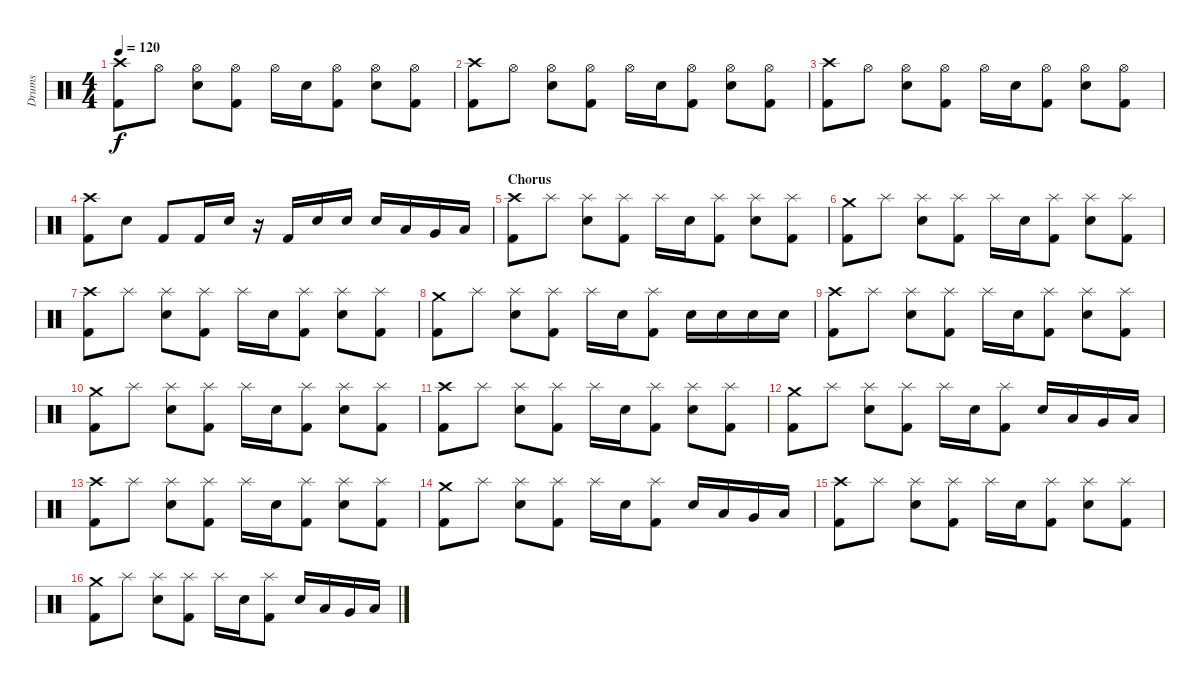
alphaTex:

\track ("Drums" "Drums") {instrument percussion}
\staff {score}
\articulation defaults
\ts (4 4)
\tempo 120
\clef neutral
\ks c
("Kick (hit) 2" "Crash high (hit)").8{dy f} "Hi-Hat (open)".8 ("Electric Snare (hit)" "Hi-Hat (open)").8 ("Kick (hit) 2" "Hi-Hat (open)").8 "Hi-Hat (open)".16 "Electric Snare (hit)".16 ("Kick (hit) 2" "Hi-Hat (open)").8 ("Electric Snare (hit)" "Hi-Hat (open)").8 ("Kick (hit) 2" "Hi-Hat (open)").8 |
("Kick (hit) 2" "Crash high (hit)").8 "Hi-Hat (open)".8 ("Electric Snare (hit)" "Hi-Hat (open)").8 ("Kick (hit) 2" "Hi-Hat (open)").8 "Hi-Hat (open)".16 "Electric Snare (hit)".16 ("Kick (hit) 2" "Hi-Hat (open)").8 ("Electric Snare (hit)" "Hi-Hat (open)").8 ("Kick (hit) 2" "Hi-Hat (open)").8 |
("Kick (hit) 2" "Crash high (hit)").8 "Hi-Hat (open)".8 ("Electric Snare (hit)" "Hi-Hat (open)").8 ("Kick (hit) 2" "Hi-Hat (open)").8 "Hi-Hat (open)".16 "Electric Snare (hit)".16 ("Kick (hit) 2" "Hi-Hat (open)").8 ("Electric Snare (hit)" "Hi-Hat (open)").8 ("Kick (hit) 2" "Hi-Hat (open)").8 |
("Kick (hit) 2" "Crash high (hit)").8 "Electric Snare (hit)".8 "Kick (hit) 2".8 "Kick (hit) 2".16 "Electric Snare (hit)".16 r.16 "Kick (hit) 2".16 "Electric Snare (hit)".16 "Electric Snare (hit)".16 "Electric Snare (hit)".16 "Low Tom (hit)".16 "Very Low Tom (hit)".16 "Low Floor Tom (hit)".16 |
\section ("" "Chorus")
("Kick (hit) 2" "Crash high (hit)").8 "Splash (hit)".8 ("Electric Snare (hit)" "Splash (hit)").8 ("Kick (hit) 2" "Splash (hit)").8 "Splash (hit)".16 "Electric Snare (hit)".16 ("Kick (hit) 2" "Splash (hit)").8 ("Electric Snare (hit)" "Splash (hit)").8 ("Kick (hit) 2" "Splash (hit)").8 |
("Kick (hit) 2" "Crash medium (hit)").8 "Splash (hit)".8 ("Electric Snare (hit)" "Splash (hit)").8 ("Kick (hit) 2" "Splash (hit)").8 "Splash (hit)".16 "Electric Snare (hit)".16 ("Kick (hit) 2" "Splash (hit)").8 ("Electric Snare (hit)" "Splash (hit)").8 ("Kick (hit) 2" "Splash (hit)").8 |
("Kick (hit) 2" "Crash high (hit)").8 "Splash (hit)".8 ("Electric Snare (hit)" "Splash (hit)").8 ("Kick (hit) 2" "Splash (hit)").8 "Splash (hit)".16 "Electric Snare (hit)".16 ("Kick (hit) 2" "Splash (hit)").8 ("Electric Snare (hit)" "Splash (hit)").8 ("Kick (hit) 2" "Splash (hit)").8 |
("Kick (hit) 2" "Crash medium (hit)").8 "Splash (hit)".8 ("Electric Snare (hit)" "Splash (hit)").8 ("Kick (hit) 2" "Splash (hit)").8 "Splash (hit)".16 "Electric Snare (hit)".16 ("Kick (hit) 2" "Splash (hit)").8 "Electric Snare (hit)".16 "Electric Snare (hit)".16 "Electric Snare (hit)".16 "Electric Snare (hit)".16 |
("Kick (hit) 2" "Crash high (hit)").8 "Splash (hit)".8 ("Electric Snare (hit)" "Splash (hit)").8 ("Kick (hit) 2" "Splash (hit)").8 "Splash (hit)".16 "Electric Snare (hit)".16 ("Kick (hit) 2" "Splash (hit)").8 ("Electric Snare (hit)" "Splash (hit)").8 ("Kick (hit) 2" "Splash (hit)").8 |
("Kick (hit) 2" "Crash medium (hit)").8 "Splash (hit)".8 ("Electric Snare (hit)" "Splash (hit)").8 ("Kick (hit) 2" "Splash (hit)").8 "Splash (hit)".16 "Electric Snare (hit)".16 ("Kick (hit) 2" "Splash (hit)").8 ("Electric Snare (hit)" "Splash (hit)").8 ("Kick (hit) 2" "Splash (hit)").8 |
("Kick (hit) 2" "Crash high (hit)").8 "Splash (hit)".8 ("Electric Snare (hit)" "Splash (hit)").8 ("Kick (hit) 2" "Splash (hit)").8 "Splash (hit)".16 "Electric Snare (hit)".16 ("Kick (hit) 2" "Splash (hit)").8 ("Electric Snare (hit)" "Splash (hit)").8 ("Kick (hit) 2" "Splash (hit)").8 |
("Kick (hit) 2" "Crash medium (hit)").8 "Splash (hit)".8 ("Electric Snare (hit)" "Splash (hit)").8 ("Kick (hit) 2" "Splash (hit)").8 "Splash (hit)".16 "Electric Snare (hit)".16 ("Kick (hit) 2" "Splash (hit)").8 "Electric Snare (hit)".16 "Low Tom (hit)".16 "Very Low Tom (hit)".16 "Low Floor Tom (hit)".16 |
("Kick (hit) 2" "Crash high (hit)").8 "Splash (hit)".8 ("Electric Snare (hit)" "Splash (hit)").8 ("Kick (hit) 2" "Splash (hit)").8 "Splash (hit)".16 "Electric Snare (hit)".16 ("Kick (hit) 2" "Splash (hit)").8 ("Electric Snare (hit)" "Splash (hit)").8 ("Kick (hit) 2" "Splash (hit)").8 |
("Kick (hit) 2" "Crash medium (hit)").8 "Splash (hit)".8 ("Electric Snare (hit)" "Splash (hit)").8 ("Kick (hit) 2" "Splash (hit)").8 "Splash (hit)".16 "Electric Snare (hit)".16 ("Kick (hit) 2" "Splash (hit)").8 "Electric Snare (hit)".16 "Low Tom (hit)".16 "Very Low Tom (hit)".16 "Low Floor Tom (hit)".16 |
("Kick (hit) 2" "Crash high (hit)").8 "Splash (hit)".8 ("Electric Snare (hit)" "Splash (hit)").8 ("Kick (hit) 2" "Splash (hit)").8 "Splash (hit)".16 "Electric Snare (hit)".16 ("Kick (hit) 2" "Splash (hit)").8 ("Electric Snare (hit)" "Splash (hit)").8 ("Kick (hit) 2" "Splash (hit)").8 |
("Kick (hit) 2" "Crash medium (hit)").8 "Splash (hit)".8 ("Electric Snare (hit)" "Splash (hit)").8 ("Kick (hit) 2" "Splash (hit)").8 "Splash (hit)".16 "Electric Snare (hit)".16 ("Kick (hit) 2" "Splash (hit)").8 "Electric Snare (hit)".16 "Low Tom (hit)".16 "Very Low Tom (hit)".16 "Low Floor Tom (hit)".16
